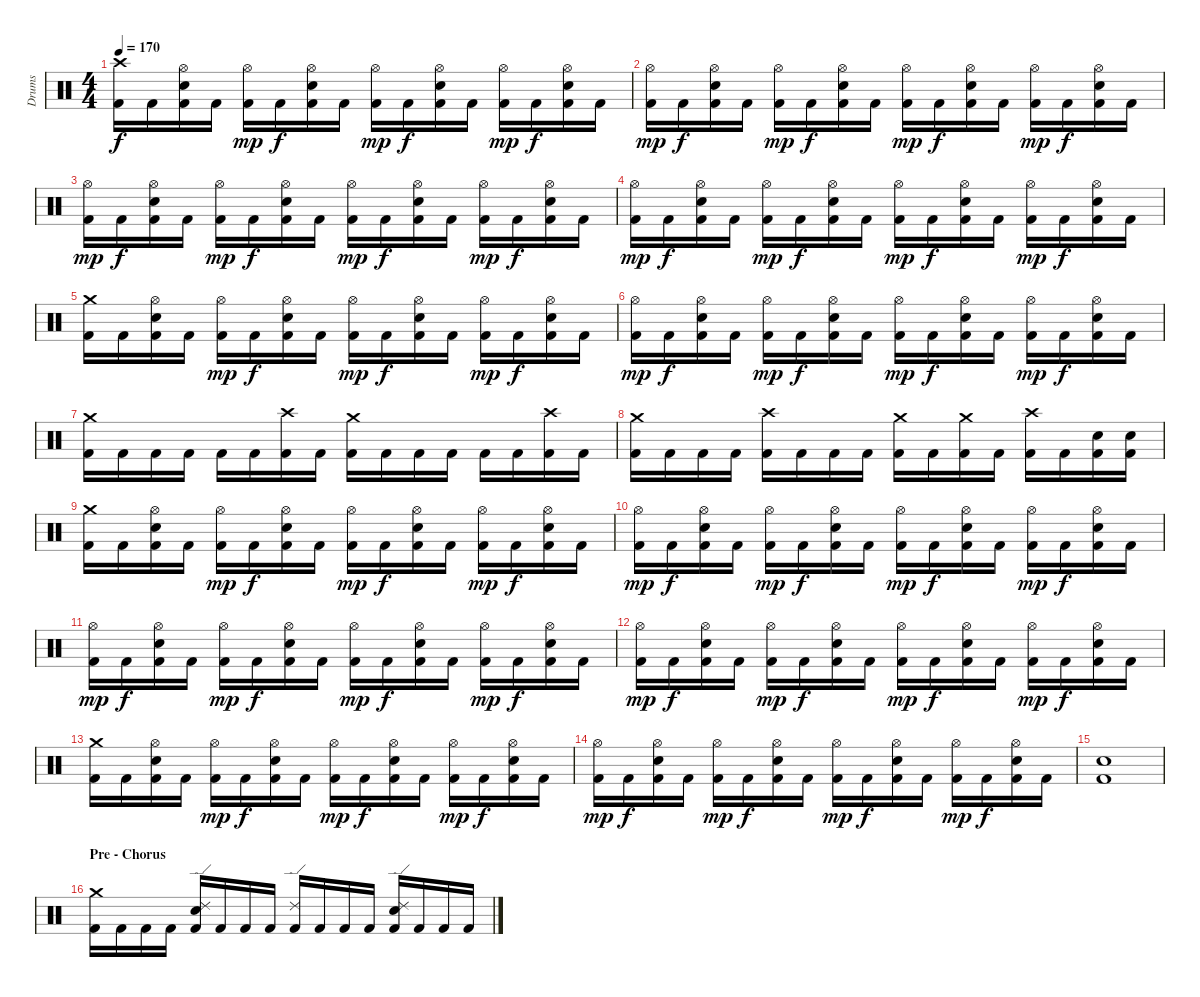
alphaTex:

\track ("Drums" "Drums") {instrument percussion}
\staff {score}
\articulation defaults
\ts (4 4)
\tempo 170
\clef neutral
\ks c
("Kick (hit) 2" "Crash high (hit)").16{dy f} "Kick (hit) 2".16 ("Kick (hit) 2" "Electric Snare (hit)" "Hi-Hat (open)").16 "Kick (hit) 2".16 ("Kick (hit) 2" "Hi-Hat (open)").16{dy mp} "Kick (hit) 2".16{dy f} ("Kick (hit) 2" "Electric Snare (hit)" "Hi-Hat (open)").16 "Kick (hit) 2".16 ("Kick (hit) 2" "Hi-Hat (open)").16{dy mp} "Kick (hit) 2".16{dy f} ("Kick (hit) 2" "Electric Snare (hit)" "Hi-Hat (open)").16 "Kick (hit) 2".16 ("Kick (hit) 2" "Hi-Hat (open)").16{dy mp} "Kick (hit) 2".16{dy f} ("Kick (hit) 2" "Electric Snare (hit)" "Hi-Hat (open)").16 "Kick (hit) 2".16 |
("Kick (hit) 2" "Hi-Hat (open)").16{dy mp} "Kick (hit) 2".16{dy f} ("Kick (hit) 2" "Electric Snare (hit)" "Hi-Hat (open)").16 "Kick (hit) 2".16 ("Kick (hit) 2" "Hi-Hat (open)").16{dy mp} "Kick (hit) 2".16{dy f} ("Kick (hit) 2" "Electric Snare (hit)" "Hi-Hat (open)").16 "Kick (hit) 2".16 ("Kick (hit) 2" "Hi-Hat (open)").16{dy mp} "Kick (hit) 2".16{dy f} ("Kick (hit) 2" "Electric Snare (hit)" "Hi-Hat (open)").16 "Kick (hit) 2".16 ("Kick (hit) 2" "Hi-Hat (open)").16{dy mp} "Kick (hit) 2".16{dy f} ("Kick (hit) 2" "Electric Snare (hit)" "Hi-Hat (open)").16 "Kick (hit) 2".16 |
("Kick (hit) 2" "Hi-Hat (open)").16{dy mp} "Kick (hit) 2".16{dy f} ("Kick (hit) 2" "Electric Snare (hit)" "Hi-Hat (open)").16 "Kick (hit) 2".16 ("Kick (hit) 2" "Hi-Hat (open)").16{dy mp} "Kick (hit) 2".16{dy f} ("Kick (hit) 2" "Electric Snare (hit)" "Hi-Hat (open)").16 "Kick (hit) 2".16 ("Kick (hit) 2" "Hi-Hat (open)").16{dy mp} "Kick (hit) 2".16{dy f} ("Kick (hit) 2" "Electric Snare (hit)" "Hi-Hat (open)").16 "Kick (hit) 2".16 ("Kick (hit) 2" "Hi-Hat (open)").16{dy mp} "Kick (hit) 2".16{dy f} ("Kick (hit) 2" "Electric Snare (hit)" "Hi-Hat (open)").16 "Kick (hit) 2".16 |
("Kick (hit) 2" "Hi-Hat (open)").16{dy mp} "Kick (hit) 2".16{dy f} ("Kick (hit) 2" "Electric Snare (hit)" "Hi-Hat (open)").16 "Kick (hit) 2".16 ("Kick (hit) 2" "Hi-Hat (open)").16{dy mp} "Kick (hit) 2".16{dy f} ("Kick (hit) 2" "Electric Snare (hit)" "Hi-Hat (open)").16 "Kick (hit) 2".16 ("Kick (hit) 2" "Hi-Hat (open)").16{dy mp} "Kick (hit) 2".16{dy f} ("Kick (hit) 2" "Electric Snare (hit)" "Hi-Hat (open)").16 "Kick (hit) 2".16 ("Kick (hit) 2" "Hi-Hat (open)").16{dy mp} "Kick (hit) 2".16{dy f} ("Kick (hit) 2" "Electric Snare (hit)" "Hi-Hat (open)").16 "Kick (hit) 2".16 |
("Kick (hit) 2" "Crash medium (hit)").16 "Kick (hit) 2".16 ("Kick (hit) 2" "Electric Snare (hit)" "Hi-Hat (open)").16 "Kick (hit) 2".16 ("Kick (hit) 2" "Hi-Hat (open)").16{dy mp} "Kick (hit) 2".16{dy f} ("Kick (hit) 2" "Electric Snare (hit)" "Hi-Hat (open)").16 "Kick (hit) 2".16 ("Kick (hit) 2" "Hi-Hat (open)").16{dy mp} "Kick (hit) 2".16{dy f} ("Kick (hit) 2" "Electric Snare (hit)" "Hi-Hat (open)").16 "Kick (hit) 2".16 ("Kick (hit) 2" "Hi-Hat (open)").16{dy mp} "Kick (hit) 2".16{dy f} ("Kick (hit) 2" "Electric Snare (hit)" "Hi-Hat (open)").16 "Kick (hit) 2".16 |
("Kick (hit) 2" "Hi-Hat (open)").16{dy mp} "Kick (hit) 2".16{dy f} ("Kick (hit) 2" "Electric Snare (hit)" "Hi-Hat (open)").16 "Kick (hit) 2".16 ("Kick (hit) 2" "Hi-Hat (open)").16{dy mp} "Kick (hit) 2".16{dy f} ("Kick (hit) 2" "Electric Snare (hit)" "Hi-Hat (open)").16 "Kick (hit) 2".16 ("Kick (hit) 2" "Hi-Hat (open)").16{dy mp} "Kick (hit) 2".16{dy f} ("Kick (hit) 2" "Electric Snare (hit)" "Hi-Hat (open)").16 "Kick (hit) 2".16 ("Kick (hit) 2" "Hi-Hat (open)").16{dy mp} "Kick (hit) 2".16{dy f} ("Kick (hit) 2" "Electric Snare (hit)" "Hi-Hat (open)").16 "Kick (hit) 2".16 |
("Kick (hit) 2" "Crash medium (hit)").16 "Kick (hit) 2".16 "Kick (hit) 2".16 "Kick (hit) 2".16 "Kick (hit) 2".16 "Kick (hit) 2".16 ("Kick (hit) 2" "Crash high (hit)").16 "Kick (hit) 2".16 ("Kick (hit) 2" "Crash medium (hit)").16 "Kick (hit) 2".16 "Kick (hit) 2".16 "Kick (hit) 2".16 "Kick (hit) 2".16 "Kick (hit) 2".16 ("Kick (hit) 2" "Crash high (hit)").16 "Kick (hit) 2".16 |
("Kick (hit) 2" "Crash medium (hit)").16 "Kick (hit) 2".16 "Kick (hit) 2".16 "Kick (hit) 2".16 ("Kick (hit) 2" "Crash high (hit)").16 "Kick (hit) 2".16 "Kick (hit) 2".16 "Kick (hit) 2".16 ("Kick (hit) 2" "Crash medium (hit)").16 "Kick (hit) 2".16 ("Kick (hit) 2" "Crash medium (hit)").16 "Kick (hit) 2".16 ("Kick (hit) 2" "Crash high (hit)").16 "Kick (hit) 2".16 ("Kick (hit) 2" "Electric Snare (hit)").16 ("Kick (hit) 2" "Electric Snare (hit)").16 |
("Kick (hit) 2" "Crash medium (hit)").16 "Kick (hit) 2".16 ("Kick (hit) 2" "Electric Snare (hit)" "Hi-Hat (open)").16 "Kick (hit) 2".16 ("Kick (hit) 2" "Hi-Hat (open)").16{dy mp} "Kick (hit) 2".16{dy f} ("Kick (hit) 2" "Electric Snare (hit)" "Hi-Hat (open)").16 "Kick (hit) 2".16 ("Kick (hit) 2" "Hi-Hat (open)").16{dy mp} "Kick (hit) 2".16{dy f} ("Kick (hit) 2" "Electric Snare (hit)" "Hi-Hat (open)").16 "Kick (hit) 2".16 ("Kick (hit) 2" "Hi-Hat (open)").16{dy mp} "Kick (hit) 2".16{dy f} ("Kick (hit) 2" "Electric Snare (hit)" "Hi-Hat (open)").16 "Kick (hit) 2".16 |
("Kick (hit) 2" "Hi-Hat (open)").16{dy mp} "Kick (hit) 2".16{dy f} ("Kick (hit) 2" "Electric Snare (hit)" "Hi-Hat (open)").16 "Kick (hit) 2".16 ("Kick (hit) 2" "Hi-Hat (open)").16{dy mp} "Kick (hit) 2".16{dy f} ("Kick (hit) 2" "Electric Snare (hit)" "Hi-Hat (open)").16 "Kick (hit) 2".16 ("Kick (hit) 2" "Hi-Hat (open)").16{dy mp} "Kick (hit) 2".16{dy f} ("Kick (hit) 2" "Electric Snare (hit)" "Hi-Hat (open)").16 "Kick (hit) 2".16 ("Kick (hit) 2" "Hi-Hat (open)").16{dy mp} "Kick (hit) 2".16{dy f} ("Kick (hit) 2" "Electric Snare (hit)" "Hi-Hat (open)").16 "Kick (hit) 2".16 |
("Kick (hit) 2" "Hi-Hat (open)").16{dy mp} "Kick (hit) 2".16{dy f} ("Kick (hit) 2" "Electric Snare (hit)" "Hi-Hat (open)").16 "Kick (hit) 2".16 ("Kick (hit) 2" "Hi-Hat (open)").16{dy mp} "Kick (hit) 2".16{dy f} ("Kick (hit) 2" "Electric Snare (hit)" "Hi-Hat (open)").16 "Kick (hit) 2".16 ("Kick (hit) 2" "Hi-Hat (open)").16{dy mp} "Kick (hit) 2".16{dy f} ("Kick (hit) 2" "Electric Snare (hit)" "Hi-Hat (open)").16 "Kick (hit) 2".16 ("Kick (hit) 2" "Hi-Hat (open)").16{dy mp} "Kick (hit) 2".16{dy f} ("Kick (hit) 2" "Electric Snare (hit)" "Hi-Hat (open)").16 "Kick (hit) 2".16 |
("Kick (hit) 2" "Hi-Hat (open)").16{dy mp} "Kick (hit) 2".16{dy f} ("Kick (hit) 2" "Electric Snare (hit)" "Hi-Hat (open)").16 "Kick (hit) 2".16 ("Kick (hit) 2" "Hi-Hat (open)").16{dy mp} "Kick (hit) 2".16{dy f} ("Kick (hit) 2" "Electric Snare (hit)" "Hi-Hat (open)").16 "Kick (hit) 2".16 ("Kick (hit) 2" "Hi-Hat (open)").16{dy mp} "Kick (hit) 2".16{dy f} ("Kick (hit) 2" "Electric Snare (hit)" "Hi-Hat (open)").16 "Kick (hit) 2".16 ("Kick (hit) 2" "Hi-Hat (open)").16{dy mp} "Kick (hit) 2".16{dy f} ("Kick (hit) 2" "Electric Snare (hit)" "Hi-Hat (open)").16 "Kick (hit) 2".16 |
("Kick (hit) 2" "Crash medium (hit)").16 "Kick (hit) 2".16 ("Kick (hit) 2" "Electric Snare (hit)" "Hi-Hat (open)").16 "Kick (hit) 2".16 ("Kick (hit) 2" "Hi-Hat (open)").16{dy mp} "Kick (hit) 2".16{dy f} ("Kick (hit) 2" "Electric Snare (hit)" "Hi-Hat (open)").16 "Kick (hit) 2".16 ("Kick (hit) 2" "Hi-Hat (open)").16{dy mp} "Kick (hit) 2".16{dy f} ("Kick (hit) 2" "Electric Snare (hit)" "Hi-Hat (open)").16 "Kick (hit) 2".16 ("Kick (hit) 2" "Hi-Hat (open)").16{dy mp} "Kick (hit) 2".16{dy f} ("Kick (hit) 2" "Electric Snare (hit)" "Hi-Hat (open)").16 "Kick (hit) 2".16 |
("Kick (hit) 2" "Hi-Hat (open)").16{dy mp} "Kick (hit) 2".16{dy f} ("Kick (hit) 2" "Electric Snare (hit)" "Hi-Hat (open)").16 "Kick (hit) 2".16 ("Kick (hit) 2" "Hi-Hat (open)").16{dy mp} "Kick (hit) 2".16{dy f} ("Kick (hit) 2" "Electric Snare (hit)" "Hi-Hat (open)").16 "Kick (hit) 2".16 ("Kick (hit) 2" "Hi-Hat (open)").16{dy mp} "Kick (hit) 2".16{dy f} ("Kick (hit) 2" "Electric Snare (hit)" "Hi-Hat (open)").16 "Kick (hit) 2".16 ("Kick (hit) 2" "Hi-Hat (open)").16{dy mp} "Kick (hit) 2".16{dy f} ("Kick (hit) 2" "Electric Snare (hit)" "Hi-Hat (open)").16 "Kick (hit) 2".16 |
("Kick (hit) 2" "Electric Snare (hit)").1 |
\section ("" "Pre - Chorus")
("Kick (hit) 2" "Crash medium (hit)").16 "Kick (hit) 2".16 "Kick (hit) 2".16 "Kick (hit) 2".16 ("Kick (hit) 2" "Electric Snare (hit)" "Ride (edge) 2").16 "Kick (hit) 2".16 "Kick (hit) 2".16 "Kick (hit) 2".16 ("Kick (hit) 2" "Ride (edge) 2").16 "Kick (hit) 2".16 "Kick (hit) 2".16 "Kick (hit) 2".16 ("Kick (hit) 2" "Electric Snare (hit)" "Ride (edge) 2").16 "Kick (hit) 2".16 "Kick (hit) 2".16 "Kick (hit) 2".16
